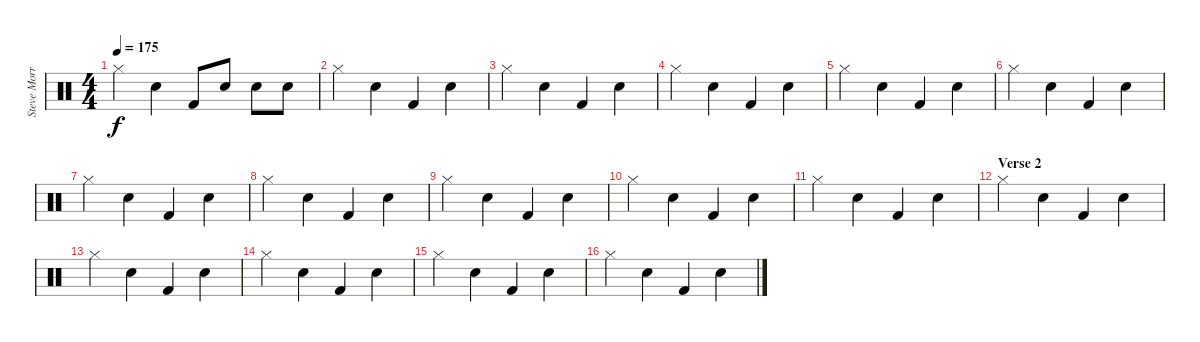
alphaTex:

\track ("Steve Morris" "Steve Morr") {instrument percussion}
\staff {score}
\articulation defaults
\ts (4 4)
\tempo 175
\clef neutral
\ks c "Hi-Hat (closed)".4{dy f} "Snare (hit) 2".4 "Kick (hit) 2".8 "Snare (hit) 2".8 "Snare (hit) 2".8 "Snare (hit) 2".8
|
"Hi-Hat (closed)".4 "Snare (hit) 2".4 "Kick (hit) 2".4 "Snare (hit) 2".4 |
"Hi-Hat (closed)".4 "Snare (hit) 2".4 "Kick (hit) 2".4 "Snare (hit) 2".4 |
"Hi-Hat (closed)".4 "Snare (hit) 2".4 "Kick (hit) 2".4 "Snare (hit) 2".4 |
"Hi-Hat (closed)".4 "Snare (hit) 2".4 "Kick (hit) 2".4 "Snare (hit) 2".4 |
"Hi-Hat (closed)".4 "Snare (hit) 2".4 "Kick (hit) 2".4 "Snare (hit) 2".4 |
"Hi-Hat (closed)".4 "Snare (hit) 2".4 "Kick (hit) 2".4 "Snare (hit) 2".4 |
"Hi-Hat (closed)".4 "Snare (hit) 2".4 "Kick (hit) 2".4 "Snare (hit) 2".4 |
"Hi-Hat (closed)".4 "Snare (hit) 2".4 "Kick (hit) 2".4 "Snare (hit) 2".4 |
"Hi-Hat (closed)".4 "Snare (hit) 2".4 "Kick (hit) 2".4 "Snare (hit) 2".4 |
"Hi-Hat (closed)".4 "Snare (hit) 2".4 "Kick (hit) 2".4 "Snare (hit) 2".4 |
\section ("" "Verse 2")
"Hi-Hat (closed)".4 "Snare (hit) 2".4 "Kick (hit) 2".4 "Snare (hit) 2".4 |
"Hi-Hat (closed)".4 "Snare (hit) 2".4 "Kick (hit) 2".4 "Snare (hit) 2".4 |
"Hi-Hat (closed)".4 "Snare (hit) 2".4 "Kick (hit) 2".4 "Snare (hit) 2".4 |
"Hi-Hat (closed)".4 "Snare (hit) 2".4 "Kick (hit) 2".4 "Snare (hit) 2".4 |
"Hi-Hat (closed)".4 "Snare (hit) 2".4 "Kick (hit) 2".4 "Snare (hit) 2".4
